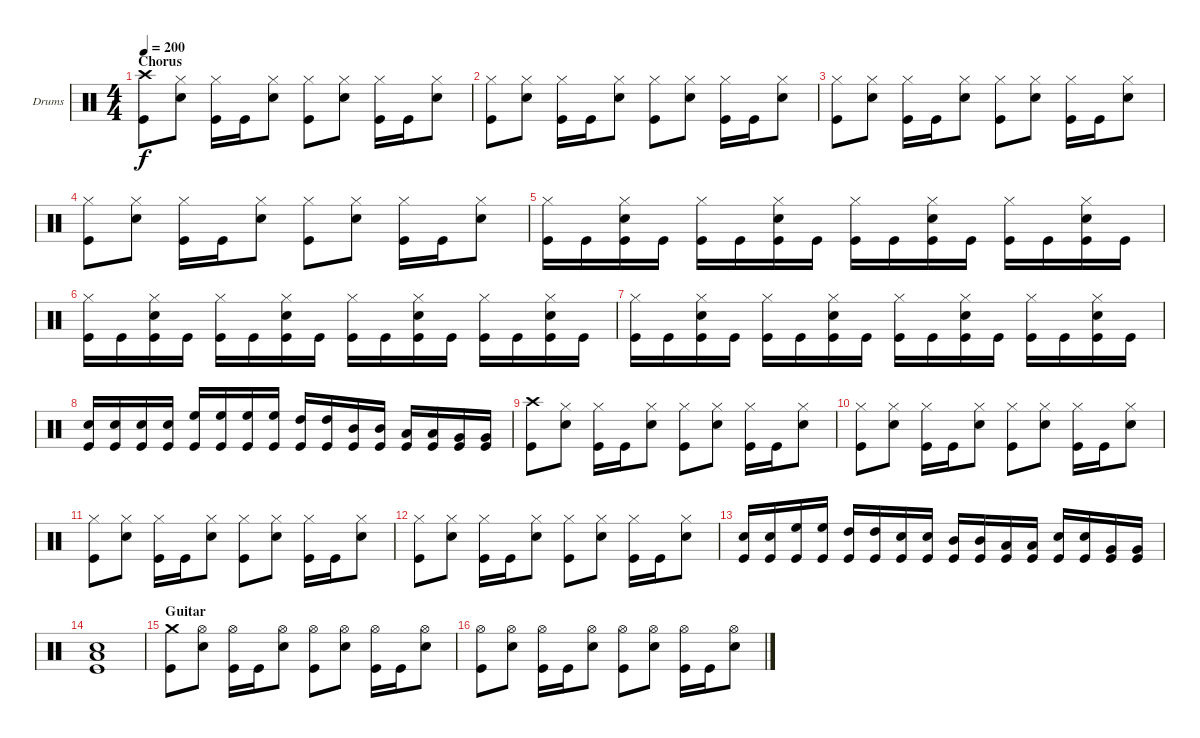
\bracketExtendMode groupsimilarinstruments
\firstSystemTrackNameOrientation horizontal
\otherSystemsTrackNameOrientation horizontal
\track ("Drumkit" "Drums") {instrument percussion}
\staff {score}
\articulation defaults
\ts (4 4)
\section ("" "Chorus")
\tempo 200
\clef neutral
\ks aminor
("Kick (hit)" "Crash high (hit)").8{dy f} ("Snare (hit) 2" "Hi-Hat (closed)").8 ("Kick (hit)" "Hi-Hat (closed)").16 "Kick (hit)".16 ("Snare (hit) 2" "Hi-Hat (closed)").8 ("Kick (hit)" "Hi-Hat (closed)").8 ("Snare (hit) 2" "Hi-Hat (closed)").8 ("Kick (hit)" "Hi-Hat (closed)").16 "Kick (hit)".16 ("Snare (hit) 2" "Hi-Hat (closed)").8 |
("Kick (hit)" "Hi-Hat (closed)").8 ("Snare (hit) 2" "Hi-Hat (closed)").8 ("Kick (hit)" "Hi-Hat (closed)").16 "Kick (hit)".16 ("Snare (hit) 2" "Hi-Hat (closed)").8 ("Kick (hit)" "Hi-Hat (closed)").8 ("Snare (hit) 2" "Hi-Hat (closed)").8 ("Kick (hit)" "Hi-Hat (closed)").16 "Kick (hit)".16 ("Snare (hit) 2" "Hi-Hat (closed)").8 |
("Kick (hit)" "Hi-Hat (closed)").8 ("Snare (hit) 2" "Hi-Hat (closed)").8 ("Kick (hit)" "Hi-Hat (closed)").16 "Kick (hit)".16 ("Snare (hit) 2" "Hi-Hat (closed)").8 ("Kick (hit)" "Hi-Hat (closed)").8 ("Snare (hit) 2" "Hi-Hat (closed)").8 ("Kick (hit)" "Hi-Hat (closed)").16 "Kick (hit)".16 ("Snare (hit) 2" "Hi-Hat (closed)").8 |
("Kick (hit)" "Hi-Hat (closed)").8 ("Snare (hit) 2" "Hi-Hat (closed)").8 ("Kick (hit)" "Hi-Hat (closed)").16 "Kick (hit)".16 ("Snare (hit) 2" "Hi-Hat (closed)").8 ("Kick (hit)" "Hi-Hat (closed)").8 ("Snare (hit) 2" "Hi-Hat (closed)").8 ("Kick (hit)" "Hi-Hat (closed)").16 "Kick (hit)".16 ("Snare (hit) 2" "Hi-Hat (closed)").8 |
("Kick (hit)" "Hi-Hat (closed)").16 "Kick (hit)".16 ("Kick (hit)" "Snare (hit) 2" "Hi-Hat (closed)").16 "Kick (hit)".16 ("Kick (hit)" "Hi-Hat (closed)").16 "Kick (hit)".16 ("Kick (hit)" "Snare (hit) 2" "Hi-Hat (closed)").16 "Kick (hit)".16 ("Kick (hit)" "Hi-Hat (closed)").16 "Kick (hit)".16 ("Kick (hit)" "Snare (hit) 2" "Hi-Hat (closed)").16 "Kick (hit)".16 ("Kick (hit)" "Hi-Hat (closed)").16 "Kick (hit)".16 ("Kick (hit)" "Snare (hit) 2" "Hi-Hat (closed)").16 "Kick (hit)".16 |
("Kick (hit)" "Hi-Hat (closed)").16 "Kick (hit)".16 ("Kick (hit)" "Snare (hit) 2" "Hi-Hat (closed)").16 "Kick (hit)".16 ("Kick (hit)" "Hi-Hat (closed)").16 "Kick (hit)".16 ("Kick (hit)" "Snare (hit) 2" "Hi-Hat (closed)").16 "Kick (hit)".16 ("Kick (hit)" "Hi-Hat (closed)").16 "Kick (hit)".16 ("Kick (hit)" "Snare (hit) 2" "Hi-Hat (closed)").16 "Kick (hit)".16 ("Kick (hit)" "Hi-Hat (closed)").16 "Kick (hit)".16 ("Kick (hit)" "Snare (hit) 2" "Hi-Hat (closed)").16 "Kick (hit)".16 |
("Kick (hit)" "Hi-Hat (closed)").16 "Kick (hit)".16 ("Kick (hit)" "Snare (hit) 2" "Hi-Hat (closed)").16 "Kick (hit)".16 ("Kick (hit)" "Hi-Hat (closed)").16 "Kick (hit)".16 ("Kick (hit)" "Snare (hit) 2" "Hi-Hat (closed)").16 "Kick (hit)".16 ("Kick (hit)" "Hi-Hat (closed)").16 "Kick (hit)".16 ("Kick (hit)" "Snare (hit) 2" "Hi-Hat (closed)").16 "Kick (hit)".16 ("Kick (hit)" "Hi-Hat (closed)").16 "Kick (hit)".16 ("Kick (hit)" "Snare (hit) 2" "Hi-Hat (closed)").16 "Kick (hit)".16 |
("Kick (hit)" "Snare (hit) 2").16 ("Kick (hit)" "Snare (hit) 2").16 ("Kick (hit)" "Snare (hit) 2").16 ("Kick (hit)" "Snare (hit) 2").16 ("Kick (hit)" "High Floor Tom (hit)").16 ("Kick (hit)" "High Floor Tom (hit)").16 ("Kick (hit)" "High Floor Tom (hit)").16 ("Kick (hit)" "High Floor Tom (hit)").16 ("Kick (hit)" "High Tom (hit)").16 ("Kick (hit)" "High Tom (hit)").16 ("Kick (hit)" "Mid Tom (hit)").16 ("Kick (hit)" "Mid Tom (hit)").16 ("Kick (hit)" "Low Tom (hit)").16 ("Kick (hit)" "Low Tom (hit)").16 ("Kick (hit)" "Very Low Tom (hit)").16 ("Kick (hit)" "Very Low Tom (hit)").16 |
("Kick (hit)" "Crash high (hit)").8 ("Snare (hit) 2" "Hi-Hat (closed)").8 ("Kick (hit)" "Hi-Hat (closed)").16 "Kick (hit)".16 ("Snare (hit) 2" "Hi-Hat (closed)").8 ("Kick (hit)" "Hi-Hat (closed)").8 ("Snare (hit) 2" "Hi-Hat (closed)").8 ("Kick (hit)" "Hi-Hat (closed)").16 "Kick (hit)".16 ("Snare (hit) 2" "Hi-Hat (closed)").8 |
("Kick (hit)" "Hi-Hat (closed)").8 ("Snare (hit) 2" "Hi-Hat (closed)").8 ("Kick (hit)" "Hi-Hat (closed)").16 "Kick (hit)".16 ("Snare (hit) 2" "Hi-Hat (closed)").8 ("Kick (hit)" "Hi-Hat (closed)").8 ("Snare (hit) 2" "Hi-Hat (closed)").8 ("Kick (hit)" "Hi-Hat (closed)").16 "Kick (hit)".16 ("Snare (hit) 2" "Hi-Hat (closed)").8 |
("Kick (hit)" "Hi-Hat (closed)").8 ("Snare (hit) 2" "Hi-Hat (closed)").8 ("Kick (hit)" "Hi-Hat (closed)").16 "Kick (hit)".16 ("Snare (hit) 2" "Hi-Hat (closed)").8 ("Kick (hit)" "Hi-Hat (closed)").8 ("Snare (hit) 2" "Hi-Hat (closed)").8 ("Kick (hit)" "Hi-Hat (closed)").16 "Kick (hit)".16 ("Snare (hit) 2" "Hi-Hat (closed)").8 |
("Kick (hit)" "Hi-Hat (closed)").8 ("Snare (hit) 2" "Hi-Hat (closed)").8 ("Kick (hit)" "Hi-Hat (closed)").16 "Kick (hit)".16 ("Snare (hit) 2" "Hi-Hat (closed)").8 ("Kick (hit)" "Hi-Hat (closed)").8 ("Snare (hit) 2" "Hi-Hat (closed)").8 ("Kick (hit)" "Hi-Hat (closed)").16 "Kick (hit)".16 ("Snare (hit) 2" "Hi-Hat (closed)").8 |
("Kick (hit)" "Snare (hit) 2").16 ("Kick (hit)" "Snare (hit) 2").16 ("Kick (hit)" "High Floor Tom (hit)").16 ("Kick (hit)" "High Floor Tom (hit)").16 ("Kick (hit)" "High Tom (hit)").16 ("Kick (hit)" "High Tom (hit)").16 ("Kick (hit)" "Snare (hit) 2").16 ("Kick (hit)" "Snare (hit) 2").16 ("Kick (hit)" "Mid Tom (hit)").16 ("Kick (hit)" "Mid Tom (hit)").16 ("Kick (hit)" "Low Tom (hit)").16 ("Kick (hit)" "Low Tom (hit)").16 ("Kick (hit)" "Snare (hit) 2").16 ("Kick (hit)" "Snare (hit) 2").16 ("Kick (hit)" "Very Low Tom (hit)").16 ("Kick (hit)" "Very Low Tom (hit)").16 |
("Kick (hit)" "Snare (hit) 2" "Low Tom (hit)").1 |
\section ("" "Guitar")
("Kick (hit)" "Crash medium (hit)").8 ("Snare (hit) 2" "Hi-Hat (open)").8 ("Kick (hit)" "Hi-Hat (open)").16 "Kick (hit)".16 ("Snare (hit) 2" "Hi-Hat (open)").8 ("Kick (hit)" "Hi-Hat (open)").8 ("Snare (hit) 2" "Hi-Hat (open)").8 ("Kick (hit)" "Hi-Hat (open)").16 "Kick (hit)".16 ("Snare (hit) 2" "Hi-Hat (open)").8 |
("Kick (hit)" "Hi-Hat (open)").8 ("Snare (hit) 2" "Hi-Hat (open)").8 ("Kick (hit)" "Hi-Hat (open)").16 "Kick (hit)".16 ("Snare (hit) 2" "Hi-Hat (open)").8 ("Kick (hit)" "Hi-Hat (open)").8 ("Snare (hit) 2" "Hi-Hat (open)").8 ("Kick (hit)" "Hi-Hat (open)").16 "Kick (hit)".16 ("Snare (hit) 2" "Hi-Hat (open)").8
